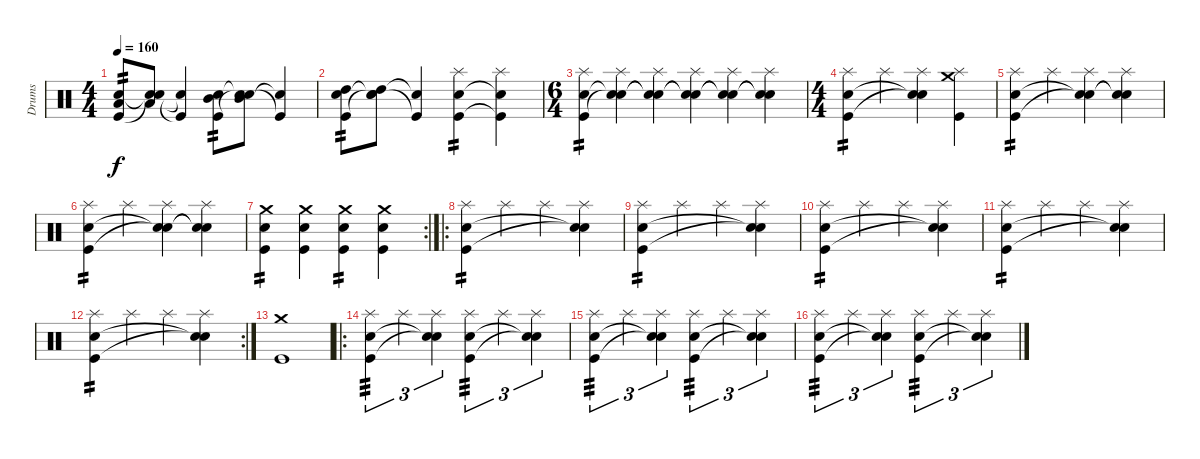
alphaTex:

\track ("Drums" "Drums") {instrument percussion}
\staff {score}
\articulation defaults
\ts (4 4)
\tempo 160
\clef neutral
\ks c
("Low Tom (hit)" "Electric Snare (hit)" "Kick (hit)").8{tp 2 dy f} ("Low Tom (hit)" "Snare (hit)"{t} "Snare (hit)"{t}).8 ("Electric Snare (hit)"{t} "Kick (hit)"{t}).4 ("Mid Tom (hit)" "Electric Snare (hit)" "Kick (hit)").8{tp 2} ("Mid Tom (hit)" "Snare (hit)"{t} "Snare (hit)"{t}).8 ("Electric Snare (hit)"{t} "Kick (hit)"{t}).4 |
("High Tom (hit)" "Electric Snare (hit)" "Kick (hit)").8{tp 2} ("High Tom (hit)" "Snare (hit)"{t} "Snare (hit)"{t}).8 ("Electric Snare (hit)"{t} "Kick (hit)"{t}).4 ("Splash (hit)" "Electric Snare (hit)" "Kick (hit)").4{tp 2} ("Splash (hit)" "Electric Snare (hit)"{t} "Kick (hit)"{t}).4 |
\ts (6 4)
("Splash (hit)" "Electric Snare (hit)" "Kick (hit)").4{tp 2} ("Splash (hit)" "Snare (hit)"{t} "Snare (hit)"{t}).4 ("Splash (hit)" "Snare (hit)"{t} "Snare (hit)"{t}).4 ("Splash (hit)" "Snare (hit)"{t} "Snare (hit)"{t}).4 ("Splash (hit)" "Snare (hit)"{t} "Snare (hit)"{t}).4 ("Splash (hit)" "Snare (hit)"{t} "Snare (hit)"{t}).4 |
\ts (4 4)
("Splash (hit)" "Electric Snare (hit)" "Kick (hit)").4{tp 2} "Splash (hit)".4 ("Splash (hit)" "Snare (hit)"{t} "Snare (hit)"{t}).4 ("Crash medium (hit)" "Splash (hit)" "Kick (hit)").4 |
("Splash (hit)" "Electric Snare (hit)" "Kick (hit)").4{tp 2} "Splash (hit)".4 ("Splash (hit)" "Snare (hit)"{t} "Snare (hit)"{t}).4 ("Splash (hit)" "Snare (hit)"{t} "Snare (hit)"{t}).4 |
("Splash (hit)" "Electric Snare (hit)" "Kick (hit)").4{tp 2} "Splash (hit)".4 ("Splash (hit)" "Snare (hit)"{t} "Snare (hit)"{t}).4 ("Splash (hit)" "Snare (hit)"{t} "Snare (hit)"{t}).4 |
\rc 2
("Crash medium (hit)" "Electric Snare (hit)" "Kick (hit)").4{tp 2} ("Crash medium (hit)" "Electric Snare (hit)" "Kick (hit)").4 ("Crash medium (hit)" "Electric Snare (hit)" "Kick (hit)").4{tp 2} ("Crash medium (hit)" "Electric Snare (hit)" "Kick (hit)").4 |
\ro
("Splash (hit)" "Electric Snare (hit)" "Kick (hit)").4{tp 2} "Splash (hit)".4 "Splash (hit)".4 ("Splash (hit)" "Snare (hit)"{t} "Snare (hit)"{t}).4 |
("Splash (hit)" "Electric Snare (hit)" "Kick (hit)").4{tp 2} "Splash (hit)".4 "Splash (hit)".4 ("Splash (hit)" "Snare (hit)"{t} "Snare (hit)"{t}).4 |
("Splash (hit)" "Electric Snare (hit)" "Kick (hit)").4{tp 2} "Splash (hit)".4 "Splash (hit)".4 ("Splash (hit)" "Snare (hit)"{t} "Snare (hit)"{t}).4 |
("Splash (hit)" "Electric Snare (hit)" "Kick (hit)").4{tp 2} "Splash (hit)".4 "Splash (hit)".4 ("Splash (hit)" "Snare (hit)"{t} "Snare (hit)"{t}).4 |
\rc 2
("Splash (hit)" "Electric Snare (hit)" "Kick (hit)").4{tp 2} "Splash (hit)".4 "Splash (hit)".4 ("Splash (hit)" "Snare (hit)"{t} "Snare (hit)"{t}).4 |
("Crash medium (hit)" "Kick (hit)").1 |
\ro
("Splash (hit)" "Electric Snare (hit)" "Kick (hit)").4{tu (3 2) tp 3} "Splash (hit)".4{tu (3 2)} ("Splash (hit)" "Snare (hit)"{t} "Snare (hit)"{t}).4{tu (3 2)} ("Splash (hit)" "Electric Snare (hit)" "Kick (hit)").4{tu (3 2) tp 3} "Splash (hit)".4{tu (3 2)} ("Splash (hit)" "Snare (hit)"{t} "Snare (hit)"{t}).4{tu (3 2)} |
("Splash (hit)" "Electric Snare (hit)" "Kick (hit)").4{tu (3 2) tp 3} "Splash (hit)".4{tu (3 2)} ("Splash (hit)" "Snare (hit)"{t} "Snare (hit)"{t}).4{tu (3 2)} ("Splash (hit)" "Electric Snare (hit)" "Kick (hit)").4{tu (3 2) tp 3} "Splash (hit)".4{tu (3 2)} ("Splash (hit)" "Snare (hit)"{t} "Snare (hit)"{t}).4{tu (3 2)} |
("Splash (hit)" "Electric Snare (hit)" "Kick (hit)").4{tu (3 2) tp 3} "Splash (hit)".4{tu (3 2)} ("Splash (hit)" "Snare (hit)"{t} "Snare (hit)"{t}).4{tu (3 2)} ("Splash (hit)" "Electric Snare (hit)" "Kick (hit)").4{tu (3 2) tp 3} "Splash (hit)".4{tu (3 2)} ("Splash (hit)" "Snare (hit)"{t} "Snare (hit)"{t}).4{tu (3 2)}
